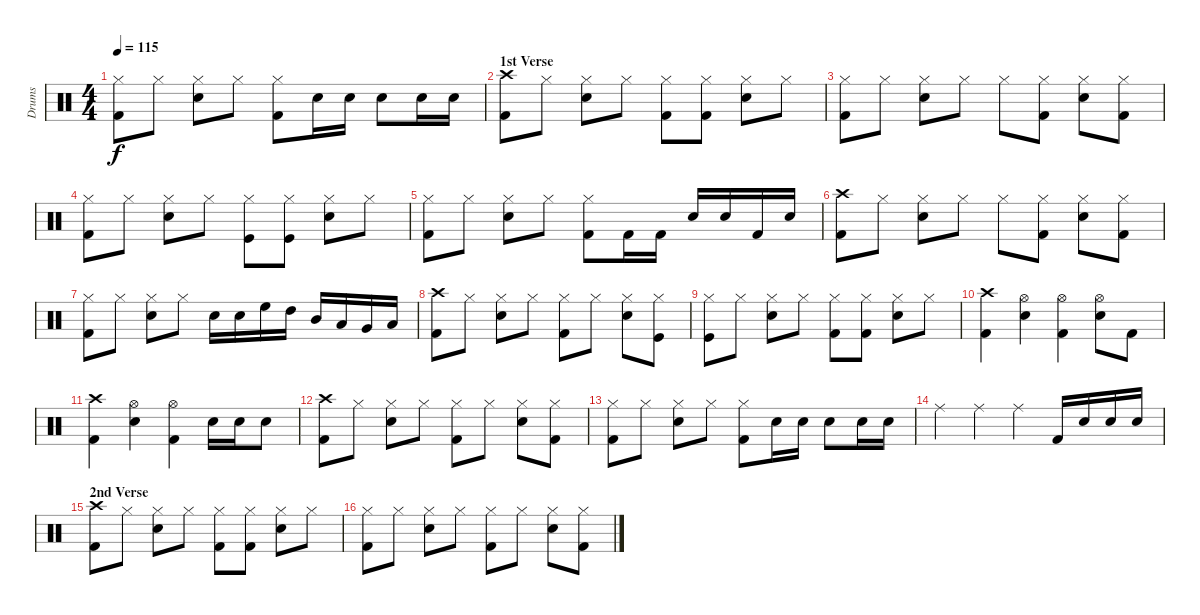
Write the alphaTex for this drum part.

\track ("Drums" "Drums") {instrument percussion}
\staff {score}
\articulation defaults
\ts (4 4)
\tempo 115
\clef neutral
\ks c
("Hi-Hat (closed)" "Kick (hit) 2").8{dy f} "Hi-Hat (closed)".8 ("Hi-Hat (closed)" "Electric Snare (hit)").8 "Hi-Hat (closed)".8 ("Hi-Hat (closed)" "Kick (hit) 2").8 "Electric Snare (hit)".16 "Electric Snare (hit)".16 "Electric Snare (hit)".8 "Electric Snare (hit)".16 "Electric Snare (hit)".16 |
\section ("" "1st Verse")
("Crash high (hit)" "Kick (hit) 2").8 "Hi-Hat (closed)".8 ("Hi-Hat (closed)" "Electric Snare (hit)").8 "Hi-Hat (closed)".8 ("Hi-Hat (closed)" "Kick (hit) 2").8 ("Hi-Hat (closed)" "Kick (hit) 2").8 ("Hi-Hat (closed)" "Electric Snare (hit)").8 "Hi-Hat (closed)".8 |
("Hi-Hat (closed)" "Kick (hit) 2").8 "Hi-Hat (closed)".8 ("Hi-Hat (closed)" "Electric Snare (hit)").8 "Hi-Hat (closed)".8 "Hi-Hat (closed)".8 ("Hi-Hat (closed)" "Kick (hit) 2").8 ("Hi-Hat (closed)" "Electric Snare (hit)").8 ("Hi-Hat (closed)" "Kick (hit) 2").8 |
("Hi-Hat (closed)" "Kick (hit) 2").8 "Hi-Hat (closed)".8 ("Hi-Hat (closed)" "Electric Snare (hit)").8 "Hi-Hat (closed)".8 ("Hi-Hat (closed)" "Kick (hit)").8 ("Hi-Hat (closed)" "Kick (hit)").8 ("Hi-Hat (closed)" "Electric Snare (hit)").8 "Hi-Hat (closed)".8 |
("Hi-Hat (closed)" "Kick (hit) 2").8 "Hi-Hat (closed)".8 ("Hi-Hat (closed)" "Electric Snare (hit)").8 "Hi-Hat (closed)".8 ("Hi-Hat (closed)" "Kick (hit) 2").8 "Kick (hit) 2".16 "Kick (hit) 2".16 "Electric Snare (hit)".16 "Electric Snare (hit)".16 "Kick (hit) 2".16 "Electric Snare (hit)".16 |
("Crash high (hit)" "Kick (hit) 2").8 "Hi-Hat (closed)".8 ("Hi-Hat (closed)" "Electric Snare (hit)").8 "Hi-Hat (closed)".8 "Hi-Hat (closed)".8 ("Hi-Hat (closed)" "Kick (hit) 2").8 ("Hi-Hat (closed)" "Electric Snare (hit)").8 ("Hi-Hat (closed)" "Kick (hit) 2").8 |
("Hi-Hat (closed)" "Kick (hit) 2").8 "Hi-Hat (closed)".8 ("Hi-Hat (closed)" "Electric Snare (hit)").8 "Hi-Hat (closed)".8 "Electric Snare (hit)".16 "Electric Snare (hit)".16 "High Floor Tom (hit)".16 "High Tom (hit)".16 "Mid Tom (hit)".16 "Low Tom (hit)".16 "Very Low Tom (hit)".16 "Low Floor Tom (hit)".16 |
("Crash high (hit)" "Kick (hit) 2").8 "Hi-Hat (closed)".8 ("Hi-Hat (closed)" "Electric Snare (hit)").8 "Hi-Hat (closed)".8 ("Hi-Hat (closed)" "Kick (hit) 2").8 "Hi-Hat (closed)".8 ("Hi-Hat (closed)" "Electric Snare (hit)").8 ("Hi-Hat (closed)" "Kick (hit)").8 |
("Hi-Hat (closed)" "Kick (hit)").8 "Hi-Hat (closed)".8 ("Hi-Hat (closed)" "Electric Snare (hit)").8 "Hi-Hat (closed)".8 ("Hi-Hat (closed)" "Kick (hit) 2").8 ("Hi-Hat (closed)" "Kick (hit) 2").8 ("Hi-Hat (closed)" "Electric Snare (hit)").8 "Hi-Hat (closed)".8 |
("Crash high (hit)" "Kick (hit) 2").4 ("Hi-Hat (open)" "Electric Snare (hit)").4 ("Hi-Hat (open)" "Kick (hit) 2").4 ("Hi-Hat (open)" "Electric Snare (hit)").8 "Kick (hit) 2".8 |
("Crash high (hit)" "Kick (hit) 2").4 ("Hi-Hat (open)" "Electric Snare (hit)").4 ("Hi-Hat (open)" "Kick (hit) 2").4 "Electric Snare (hit)".16 "Electric Snare (hit)".16 "Electric Snare (hit)".8 |
("Crash high (hit)" "Kick (hit) 2").8 "Hi-Hat (closed)".8 ("Hi-Hat (closed)" "Electric Snare (hit)").8 "Hi-Hat (closed)".8 ("Hi-Hat (closed)" "Kick (hit) 2").8 "Hi-Hat (closed)".8 ("Hi-Hat (closed)" "Electric Snare (hit)").8 ("Hi-Hat (closed)" "Kick (hit) 2").8 |
("Hi-Hat (closed)" "Kick (hit) 2").8 "Hi-Hat (closed)".8 ("Hi-Hat (closed)" "Electric Snare (hit)").8 "Hi-Hat (closed)".8 ("Hi-Hat (closed)" "Kick (hit) 2").8 "Electric Snare (hit)".16 "Electric Snare (hit)".16 "Electric Snare (hit)".8 "Electric Snare (hit)".16 "Electric Snare (hit)".16 |
"Ride (middle)".4 "Ride (middle)".4 "Ride (middle)".4 "Kick (hit) 2".16 "Electric Snare (hit)".16 "Electric Snare (hit)".16 "Electric Snare (hit)".16 |
\section ("" "2nd Verse")
("Crash high (hit)" "Kick (hit) 2").8 "Hi-Hat (closed)".8 ("Hi-Hat (closed)" "Electric Snare (hit)").8 "Hi-Hat (closed)".8 ("Hi-Hat (closed)" "Kick (hit) 2").8 ("Hi-Hat (closed)" "Kick (hit) 2").8 ("Hi-Hat (closed)" "Electric Snare (hit)").8 "Hi-Hat (closed)".8 |
("Hi-Hat (closed)" "Kick (hit) 2").8 "Hi-Hat (closed)".8 ("Hi-Hat (closed)" "Electric Snare (hit)").8 "Hi-Hat (closed)".8 ("Hi-Hat (closed)" "Kick (hit) 2").8 "Hi-Hat (closed)".8 ("Hi-Hat (closed)" "Electric Snare (hit)").8 ("Hi-Hat (closed)" "Kick (hit) 2").8
